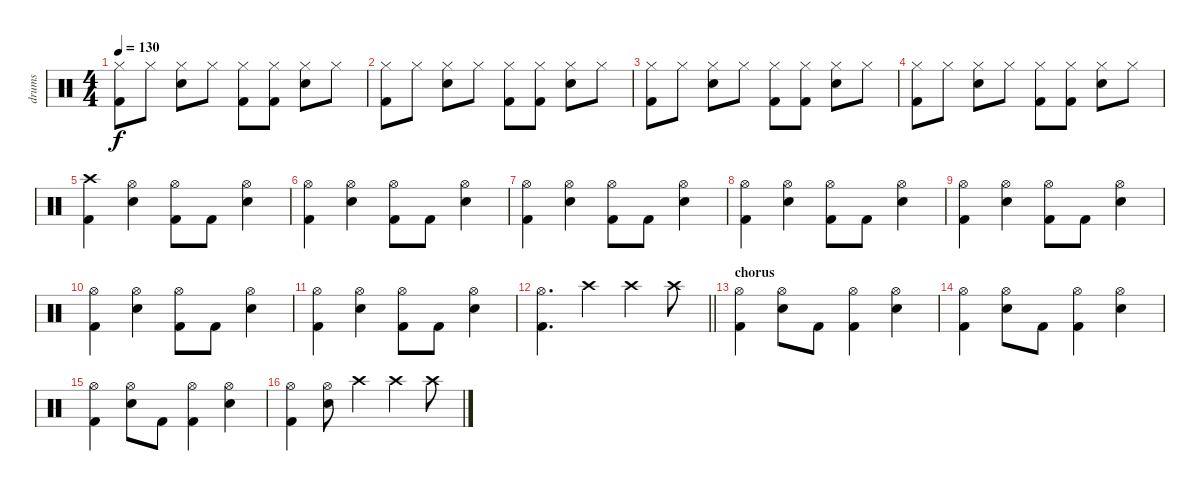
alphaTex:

\track ("drums" "drums") {instrument percussion}
\staff {score}
\articulation defaults
\ts (4 4)
\tempo 130
\clef neutral
\ks c
("Hi-Hat (closed)" "Kick (hit) 2").8{dy f} "Hi-Hat (closed)".8 ("Hi-Hat (closed)" "Snare (hit) 2").8 "Hi-Hat (closed)".8 ("Hi-Hat (closed)" "Kick (hit) 2").8 ("Hi-Hat (closed)" "Kick (hit) 2").8 ("Hi-Hat (closed)" "Snare (hit) 2").8 "Hi-Hat (closed)".8 |
("Hi-Hat (closed)" "Kick (hit) 2").8 "Hi-Hat (closed)".8 ("Hi-Hat (closed)" "Snare (hit) 2").8 "Hi-Hat (closed)".8 ("Hi-Hat (closed)" "Kick (hit) 2").8 ("Hi-Hat (closed)" "Kick (hit) 2").8 ("Hi-Hat (closed)" "Snare (hit) 2").8 "Hi-Hat (closed)".8 |
("Hi-Hat (closed)" "Kick (hit) 2").8 "Hi-Hat (closed)".8 ("Hi-Hat (closed)" "Snare (hit) 2").8 "Hi-Hat (closed)".8 ("Hi-Hat (closed)" "Kick (hit) 2").8 ("Hi-Hat (closed)" "Kick (hit) 2").8 ("Hi-Hat (closed)" "Snare (hit) 2").8 "Hi-Hat (closed)".8 |
("Hi-Hat (closed)" "Kick (hit) 2").8 "Hi-Hat (closed)".8 ("Hi-Hat (closed)" "Snare (hit) 2").8 "Hi-Hat (closed)".8 ("Hi-Hat (closed)" "Kick (hit) 2").8 ("Hi-Hat (closed)" "Kick (hit) 2").8 ("Hi-Hat (closed)" "Snare (hit) 2").8 "Hi-Hat (closed)".8 |
("Crash high (hit)" "Kick (hit) 2").4 ("Hi-Hat (open)" "Snare (hit) 2").4 ("Hi-Hat (open)" "Kick (hit) 2").8 "Kick (hit) 2".8 ("Hi-Hat (open)" "Snare (hit) 2").4 |
("Hi-Hat (open)" "Kick (hit) 2").4 ("Hi-Hat (open)" "Snare (hit) 2").4 ("Hi-Hat (open)" "Kick (hit) 2").8 "Kick (hit) 2".8 ("Hi-Hat (open)" "Snare (hit) 2").4 |
("Hi-Hat (open)" "Kick (hit) 2").4 ("Hi-Hat (open)" "Snare (hit) 2").4 ("Hi-Hat (open)" "Kick (hit) 2").8 "Kick (hit) 2".8 ("Hi-Hat (open)" "Snare (hit) 2").4 |
("Hi-Hat (open)" "Kick (hit) 2").4 ("Hi-Hat (open)" "Snare (hit) 2").4 ("Hi-Hat (open)" "Kick (hit) 2").8 "Kick (hit) 2".8 ("Hi-Hat (open)" "Snare (hit) 2").4 |
("Hi-Hat (open)" "Kick (hit) 2").4 ("Hi-Hat (open)" "Snare (hit) 2").4 ("Hi-Hat (open)" "Kick (hit) 2").8 "Kick (hit) 2".8 ("Hi-Hat (open)" "Snare (hit) 2").4 |
("Hi-Hat (open)" "Kick (hit) 2").4 ("Hi-Hat (open)" "Snare (hit) 2").4 ("Hi-Hat (open)" "Kick (hit) 2").8 "Kick (hit) 2".8 ("Hi-Hat (open)" "Snare (hit) 2").4 |
("Hi-Hat (open)" "Kick (hit) 2").4 ("Hi-Hat (open)" "Snare (hit) 2").4 ("Hi-Hat (open)" "Kick (hit) 2").8 "Kick (hit) 2".8 ("Hi-Hat (open)" "Snare (hit) 2").4 |
\barLineRight lightlight
("Hi-Hat (open)" "Kick (hit) 2").4{d} "Crash high (hit)".4 "Crash high (hit)".4 "Crash high (hit)".8 |
\section ("" "chorus")
("Hi-Hat (open)" "Kick (hit) 2").4 ("Hi-Hat (open)" "Snare (hit) 2").8 "Kick (hit) 2".8 ("Hi-Hat (open)" "Kick (hit) 2").4 ("Hi-Hat (open)" "Snare (hit) 2").4 |
("Hi-Hat (open)" "Kick (hit) 2").4 ("Hi-Hat (open)" "Snare (hit) 2").8 "Kick (hit) 2".8 ("Hi-Hat (open)" "Kick (hit) 2").4 ("Hi-Hat (open)" "Snare (hit) 2").4 |
("Hi-Hat (open)" "Kick (hit) 2").4 ("Hi-Hat (open)" "Snare (hit) 2").8 "Kick (hit) 2".8 ("Hi-Hat (open)" "Kick (hit) 2").4 ("Hi-Hat (open)" "Snare (hit) 2").4 |
("Hi-Hat (open)" "Kick (hit) 2").4 ("Hi-Hat (open)" "Snare (hit) 2").8 "Crash high (hit)".4 "Crash high (hit)".4 "Crash high (hit)".8
